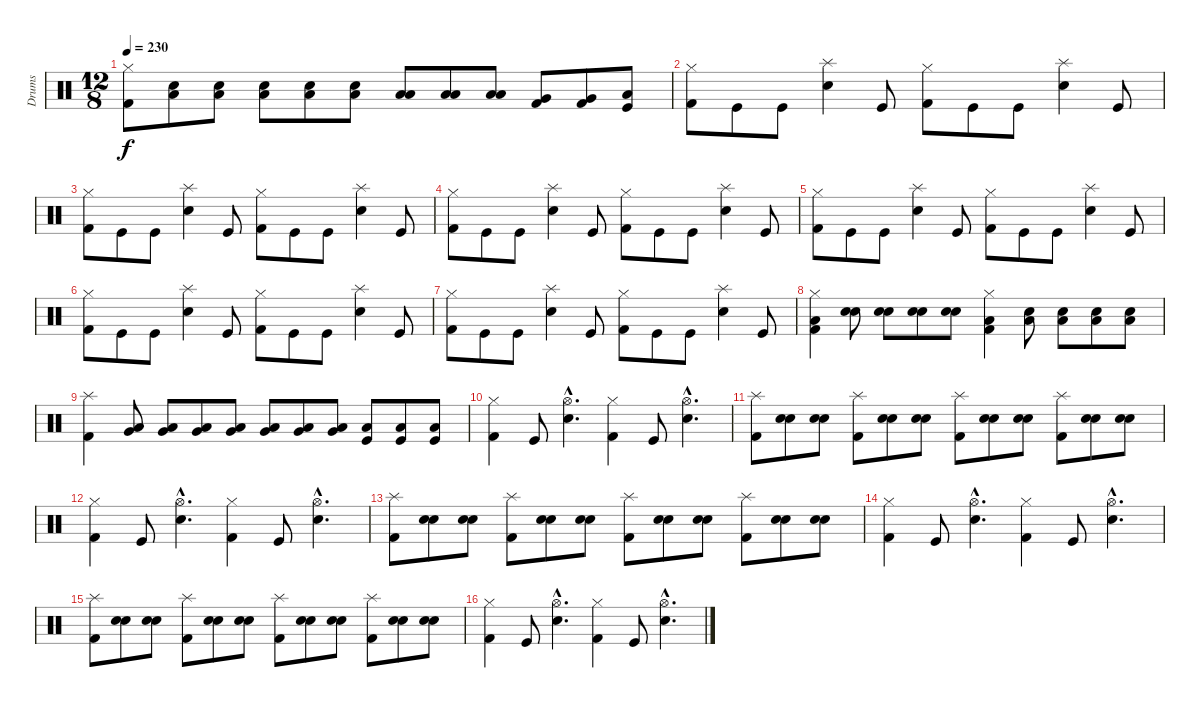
\track ("Drums" "Drums") {instrument percussion}
\staff {score}
\articulation defaults
\ts (12 8)
\tempo 230
\clef neutral
\ks c
("Hi-Hat (closed)" "Kick (hit) 2").8{dy f} ("Electric Snare (hit)" "Low Tom (hit)").8 ("Low Tom (hit)" "Snare (hit) 2").8 ("Low Tom (hit)" "Snare (hit) 2").8 ("Low Tom (hit)" "Snare (hit) 2").8 ("Low Tom (hit)" "Snare (hit) 2").8 ("Low Tom (hit)" "Low Floor Tom (hit)").8 ("Low Floor Tom (hit)" "Low Tom (hit)").8 ("Low Floor Tom (hit)" "Low Tom (hit)").8 ("Kick (hit) 2" "Very Low Tom (hit)").8 ("Kick (hit) 2" "Very Low Tom (hit)").8 ("Kick (hit)" "Low Floor Tom (hit)").8 |
("Hi-Hat (closed)" "Kick (hit) 2").8 "Kick (hit)".8 "Kick (hit)".8 ("Splash (hit)" "Snare (hit) 2").4 "Kick (hit)".8 ("Hi-Hat (closed)" "Kick (hit) 2").8 "Kick (hit)".8 "Kick (hit)".8 ("Splash (hit)" "Snare (hit) 2").4 "Kick (hit)".8 |
("Hi-Hat (closed)" "Kick (hit) 2").8 "Kick (hit)".8 "Kick (hit)".8 ("Splash (hit)" "Snare (hit) 2").4 "Kick (hit)".8 ("Hi-Hat (closed)" "Kick (hit) 2").8 "Kick (hit)".8 "Kick (hit)".8 ("Splash (hit)" "Snare (hit) 2").4 "Kick (hit)".8 |
("Hi-Hat (closed)" "Kick (hit) 2").8 "Kick (hit)".8 "Kick (hit)".8 ("Splash (hit)" "Snare (hit) 2").4 "Kick (hit)".8 ("Hi-Hat (closed)" "Kick (hit) 2").8 "Kick (hit)".8 "Kick (hit)".8 ("Splash (hit)" "Snare (hit) 2").4 "Kick (hit)".8 |
("Hi-Hat (closed)" "Kick (hit) 2").8 "Kick (hit)".8 "Kick (hit)".8 ("Splash (hit)" "Snare (hit) 2").4 "Kick (hit)".8 ("Hi-Hat (closed)" "Kick (hit) 2").8 "Kick (hit)".8 "Kick (hit)".8 ("Splash (hit)" "Snare (hit) 2").4 "Kick (hit)".8 |
("Hi-Hat (closed)" "Kick (hit) 2").8 "Kick (hit)".8 "Kick (hit)".8 ("Splash (hit)" "Snare (hit) 2").4 "Kick (hit)".8 ("Hi-Hat (closed)" "Kick (hit) 2").8 "Kick (hit)".8 "Kick (hit)".8 ("Splash (hit)" "Snare (hit) 2").4 "Kick (hit)".8 |
("Hi-Hat (closed)" "Kick (hit) 2").8 "Kick (hit)".8 "Kick (hit)".8 ("Splash (hit)" "Snare (hit) 2").4 "Kick (hit)".8 ("Hi-Hat (closed)" "Kick (hit) 2").8 "Kick (hit)".8 "Kick (hit)".8 ("Splash (hit)" "Snare (hit) 2").4 "Kick (hit)".8 |
("Low Floor Tom (hit)" "Hi-Hat (closed)" "Kick (hit) 2").4 ("Electric Snare (hit)" "Snare (hit) 2").8 ("Electric Snare (hit)" "Snare (hit) 2").8 ("Electric Snare (hit)" "Snare (hit) 2").8 ("Electric Snare (hit)" "Snare (hit) 2").8 ("Low Floor Tom (hit)" "Hi-Hat (closed)" "Kick (hit) 2").4 ("Low Tom (hit)" "Snare (hit) 2").8 ("Low Tom (hit)" "Snare (hit) 2").8 ("Low Tom (hit)" "Snare (hit) 2").8 ("Low Tom (hit)" "Snare (hit) 2").8 |
("Splash (hit)" "Kick (hit) 2").4 ("Very Low Tom (hit)" "Low Tom (hit)").8 ("Very Low Tom (hit)" "Low Tom (hit)").8 ("Very Low Tom (hit)" "Low Tom (hit)").8 ("Very Low Tom (hit)" "Low Tom (hit)").8 ("Low Floor Tom (hit)" "Very Low Tom (hit)").8 ("Low Floor Tom (hit)" "Very Low Tom (hit)").8 ("Low Floor Tom (hit)" "Very Low Tom (hit)").8 ("Kick (hit)" "Low Floor Tom (hit)").8 ("Kick (hit)" "Low Floor Tom (hit)").8 ("Kick (hit)" "Low Floor Tom (hit)").8 |
("Hi-Hat (closed)" "Kick (hit) 2").4 "Kick (hit)".8 ("Hi-Hat (open)"{hac} "Snare (hit) 2"{hac}).4{d} ("Hi-Hat (closed)" "Kick (hit) 2").4 "Kick (hit)".8 ("Hi-Hat (open)"{hac} "Snare (hit) 2"{hac}).4{d} |
("Splash (hit)" "Kick (hit) 2").8 ("Electric Snare (hit)" "Snare (hit) 2").8 ("Electric Snare (hit)" "Snare (hit) 2").8 ("Splash (hit)" "Kick (hit) 2").8 ("Electric Snare (hit)" "Snare (hit) 2").8 ("Electric Snare (hit)" "Snare (hit) 2").8 ("Splash (hit)" "Kick (hit) 2").8 ("Electric Snare (hit)" "Snare (hit) 2").8 ("Electric Snare (hit)" "Snare (hit) 2").8 ("Splash (hit)" "Kick (hit) 2").8 ("Snare (hit) 2" "Electric Snare (hit)").8 ("Snare (hit) 2" "Electric Snare (hit)").8 |
("Hi-Hat (closed)" "Kick (hit) 2").4 "Kick (hit)".8 ("Hi-Hat (open)"{hac} "Snare (hit) 2"{hac}).4{d} ("Hi-Hat (closed)" "Kick (hit) 2").4 "Kick (hit)".8 ("Hi-Hat (open)"{hac} "Snare (hit) 2"{hac}).4{d} |
("Splash (hit)" "Kick (hit) 2").8 ("Electric Snare (hit)" "Snare (hit) 2").8 ("Electric Snare (hit)" "Snare (hit) 2").8 ("Splash (hit)" "Kick (hit) 2").8 ("Electric Snare (hit)" "Snare (hit) 2").8 ("Electric Snare (hit)" "Snare (hit) 2").8 ("Splash (hit)" "Kick (hit) 2").8 ("Electric Snare (hit)" "Snare (hit) 2").8 ("Electric Snare (hit)" "Snare (hit) 2").8 ("Splash (hit)" "Kick (hit) 2").8 ("Snare (hit) 2" "Electric Snare (hit)").8 ("Snare (hit) 2" "Electric Snare (hit)").8 |
("Hi-Hat (closed)" "Kick (hit) 2").4 "Kick (hit)".8 ("Hi-Hat (open)"{hac} "Snare (hit) 2"{hac}).4{d} ("Hi-Hat (closed)" "Kick (hit) 2").4 "Kick (hit)".8 ("Hi-Hat (open)"{hac} "Snare (hit) 2"{hac}).4{d} |
("Splash (hit)" "Kick (hit) 2").8 ("Electric Snare (hit)" "Snare (hit) 2").8 ("Electric Snare (hit)" "Snare (hit) 2").8 ("Splash (hit)" "Kick (hit) 2").8 ("Electric Snare (hit)" "Snare (hit) 2").8 ("Electric Snare (hit)" "Snare (hit) 2").8 ("Splash (hit)" "Kick (hit) 2").8 ("Electric Snare (hit)" "Snare (hit) 2").8 ("Electric Snare (hit)" "Snare (hit) 2").8 ("Splash (hit)" "Kick (hit) 2").8 ("Snare (hit) 2" "Electric Snare (hit)").8 ("Snare (hit) 2" "Electric Snare (hit)").8 |
("Hi-Hat (closed)" "Kick (hit) 2").4 "Kick (hit)".8 ("Hi-Hat (open)"{hac} "Snare (hit) 2"{hac}).4{d} ("Hi-Hat (closed)" "Kick (hit) 2").4 "Kick (hit)".8 ("Hi-Hat (open)"{hac} "Snare (hit) 2"{hac}).4{d}
